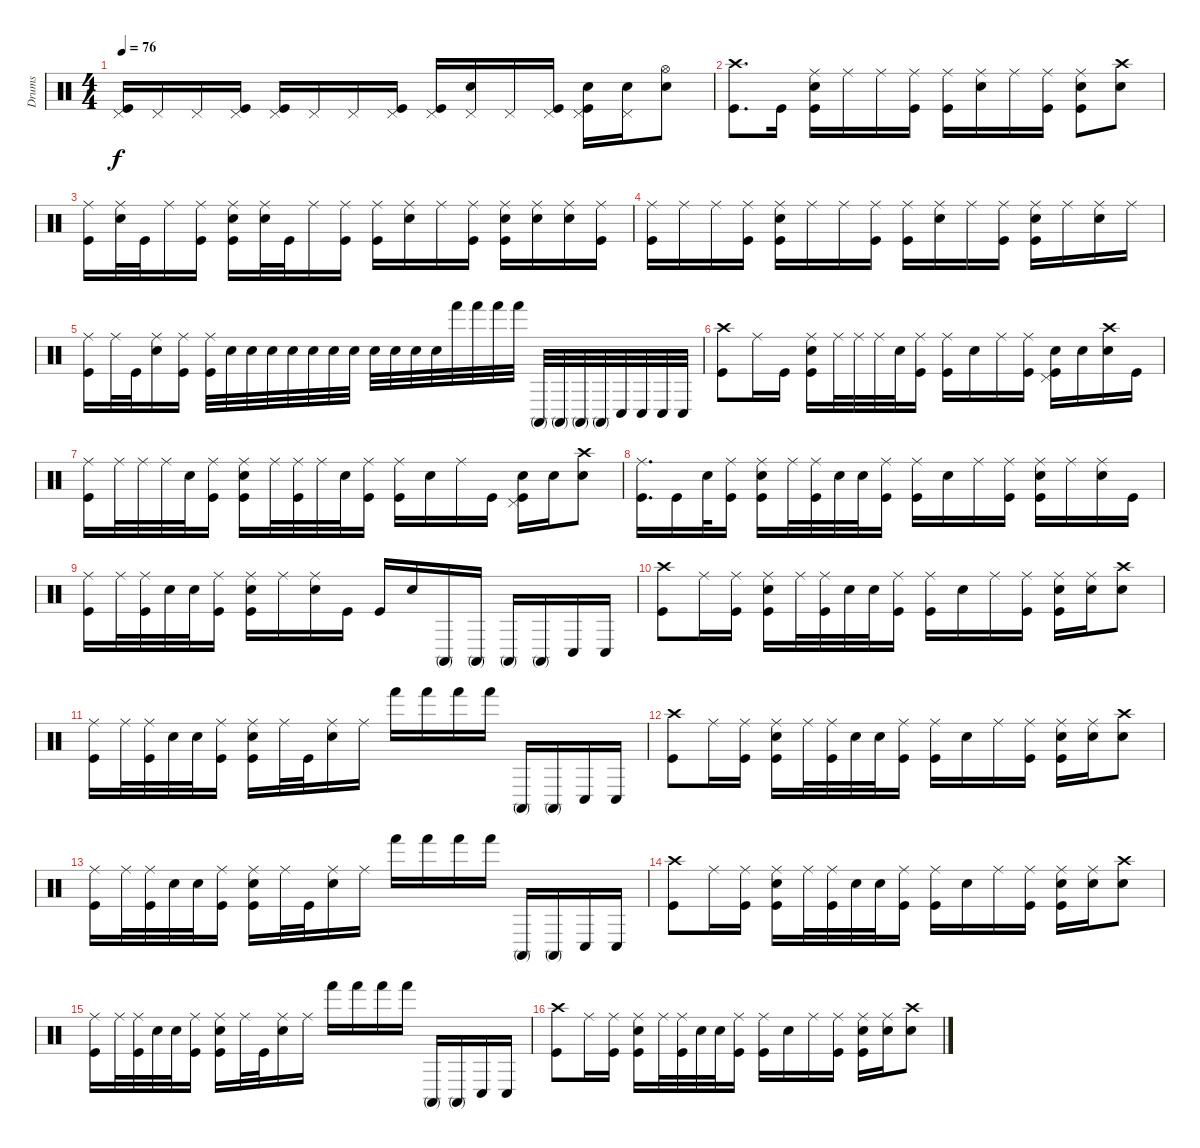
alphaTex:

\track ("Drums" "Drums") {instrument percussion}
\staff {score}
\articulation defaults
\ts (4 4)
\tempo 76
\clef neutral
\ks c
("Kick (hit)" "Pedal Hi-Hat (hit)").16{dy f} "Pedal Hi-Hat (hit)".16 "Pedal Hi-Hat (hit)".16 ("Pedal Hi-Hat (hit)" "Kick (hit)").16 ("Pedal Hi-Hat (hit)" "Kick (hit)").16 "Pedal Hi-Hat (hit)".16 "Pedal Hi-Hat (hit)".16 ("Pedal Hi-Hat (hit)" "Kick (hit)").16 ("Pedal Hi-Hat (hit)" "Kick (hit)").16 ("Pedal Hi-Hat (hit)" "Electric Snare (hit)").16 "Pedal Hi-Hat (hit)".16 ("Pedal Hi-Hat (hit)" "Kick (hit)").16 ("Pedal Hi-Hat (hit)" "Kick (hit)" "Electric Snare (hit)").16 ("Pedal Hi-Hat (hit)" "Electric Snare (hit)").16 ("Electric Snare (hit)" "Hi-Hat (open)").8 |
("Kick (hit)" "Crash high (hit)").8{d} "Kick (hit)".16 ("Kick (hit)" "Electric Snare (hit)" "Ride (middle)").16 "Ride (middle)".16 "Ride (middle)".16 ("Kick (hit)" "Ride (middle)").16 ("Kick (hit)" "Ride (middle)").16 ("Electric Snare (hit)" "Ride (middle)").16 "Ride (middle)".16 ("Kick (hit)" "Ride (middle)").16 ("Kick (hit)" "Electric Snare (hit)" "Ride (middle)").8 ("Electric Snare (hit)" "Crash high (hit)").8 |
("Kick (hit)" "Ride (middle)").16 ("Electric Snare (hit)" "Ride (middle)").32 "Kick (hit)".32 "Ride (middle)".16 ("Kick (hit)" "Ride (middle)").16 ("Kick (hit)" "Electric Snare (hit)" "Ride (middle)").16 ("Electric Snare (hit)" "Ride (middle)").32 "Kick (hit)".32 "Ride (middle)".16 ("Kick (hit)" "Ride (middle)").16 ("Kick (hit)" "Ride (middle)").16 ("Electric Snare (hit)" "Ride (middle)").16 "Ride (middle)".16 ("Kick (hit)" "Ride (middle)").16 ("Kick (hit)" "Electric Snare (hit)" "Ride (middle)").16 ("Electric Snare (hit)" "Ride (middle)").16 ("Electric Snare (hit)" "Ride (middle)").16 ("Kick (hit)" "Ride (middle)").16 |
("Kick (hit)" "Ride (middle)").16 "Ride (middle)".16 "Ride (middle)".16 ("Kick (hit)" "Ride (middle)").16 ("Kick (hit)" "Electric Snare (hit)" "Ride (middle)").16 "Ride (middle)".16 "Ride (middle)".16 ("Kick (hit)" "Ride (middle)").16 ("Kick (hit)" "Ride (middle)").16 ("Electric Snare (hit)" "Ride (middle)").16 "Ride (middle)".16 ("Kick (hit)" "Ride (middle)").16 ("Kick (hit)" "Electric Snare (hit)" "Ride (middle)").16 "Ride (middle)".16 ("Electric Snare (hit)" "Ride (middle)").16 "Ride (middle)".16 |
("Ride (middle)" "Kick (hit)").16 "Ride (middle)".32 "Kick (hit)".32 ("Ride (middle)" "Electric Snare (hit)").16 ("Ride (middle)" "Kick (hit)").16 ("Kick (hit)" "Ride (middle)").32 "Electric Snare (hit)".32 "Electric Snare (hit)".32 "Electric Snare (hit)".32 "Electric Snare (hit)".32 "Electric Snare (hit)".32 "Electric Snare (hit)".32 "Electric Snare (hit)".32 "Electric Snare (hit)".32 "Electric Snare (hit)".32 "Electric Snare (hit)".32 "Electric Snare (hit)".32 "Hand (hit)".32 "Hand (hit)".32 "Hand (hit)".32 "Hand (hit)".32 "Conga high (mute)".32 "Conga high (mute)".32 "Conga high (mute)".32 "Conga high (mute)".32 "Conga low (hit)".32 "Conga low (hit)".32 "Conga low (hit)".32 "Conga low (hit)".32 |
("Kick (hit)" "Crash high (hit)").8 "Ride (middle)".16 "Kick (hit)".16 ("Kick (hit)" "Ride (middle)" "Electric Snare (hit)").16 "Ride (middle)".32 "Ride (middle)".32 "Ride (middle)".32 "Electric Snare (hit)".32 ("Kick (hit)" "Ride (middle)").16 ("Kick (hit)" "Ride (middle)").16 "Electric Snare (hit)".16 "Ride (middle)".16 ("Kick (hit)" "Ride (middle)").16 ("Kick (hit)" "Electric Snare (hit)" "Pedal Hi-Hat (hit)").16 "Electric Snare (hit)".16 ("Electric Snare (hit)" "Crash high (hit)").16 "Kick (hit)".16 |
("Kick (hit)" "Ride (middle)").16 "Ride (middle)".32 "Ride (middle)".32 "Ride (middle)".32 "Electric Snare (hit)".32 ("Kick (hit)" "Ride (middle)").16 ("Kick (hit)" "Electric Snare (hit)" "Ride (middle)").16 "Ride (middle)".32 ("Kick (hit)" "Ride (middle)").32 "Ride (middle)".32 "Electric Snare (hit)".32 ("Kick (hit)" "Ride (middle)").16 ("Kick (hit)" "Ride (middle)").16 "Electric Snare (hit)".16 "Ride (middle)".16 "Kick (hit)".16 ("Kick (hit)" "Electric Snare (hit)" "Pedal Hi-Hat (hit)").16 "Electric Snare (hit)".16 ("Electric Snare (hit)" "Crash high (hit)").8 |
("Kick (hit)" "Ride (middle)").16{d} "Kick (hit)".16 "Electric Snare (hit)".32 ("Kick (hit)" "Ride (middle)").16 ("Electric Snare (hit)" "Kick (hit)" "Ride (middle)").16 "Ride (middle)".32 ("Kick (hit)" "Ride (middle)").32 "Electric Snare (hit)".32 "Electric Snare (hit)".32 ("Kick (hit)" "Ride (middle)").16 ("Kick (hit)" "Ride (middle)").16 "Electric Snare (hit)".16 "Ride (middle)".16 ("Kick (hit)" "Ride (middle)").16 ("Kick (hit)" "Ride (middle)" "Electric Snare (hit)").16 "Ride (middle)".16 ("Ride (middle)" "Electric Snare (hit)").16 "Kick (hit)".16 |
("Ride (middle)" "Kick (hit)").16 "Ride (middle)".32 ("Kick (hit)" "Ride (middle)").32 "Electric Snare (hit)".32 "Electric Snare (hit)".32 ("Kick (hit)" "Ride (middle)").16 ("Electric Snare (hit)" "Ride (middle)" "Kick (hit)").16 "Ride (middle)".16 ("Ride (middle)" "Electric Snare (hit)").16 "Kick (hit)".16 "Kick (hit)".16 "Electric Snare (hit)".16 "Conga high (mute)".16 "Conga high (mute)".16 "Conga high (mute)".16 "Conga high (mute)".16 "Conga low (hit)".16 "Conga low (hit)".16 |
("Kick (hit)" "Crash high (hit)").8 "Ride (middle)".16 ("Kick (hit)" "Ride (middle)").16 ("Electric Snare (hit)" "Kick (hit)" "Ride (middle)").16 "Ride (middle)".32 ("Kick (hit)" "Ride (middle)").32 "Electric Snare (hit)".32 "Electric Snare (hit)".32 ("Kick (hit)" "Ride (middle)").16 ("Kick (hit)" "Ride (middle)").16 "Electric Snare (hit)".16 "Ride (middle)".16 ("Kick (hit)" "Ride (middle)").16 ("Kick (hit)" "Electric Snare (hit)" "Ride (middle)").16 ("Electric Snare (hit)" "Ride (middle)").16 ("Electric Snare (hit)" "Crash high (hit)").8 |
("Kick (hit)" "Ride (middle)").16 "Ride (middle)".32 ("Kick (hit)" "Ride (middle)").32 "Electric Snare (hit)".32 "Electric Snare (hit)".32 ("Kick (hit)" "Ride (middle)").16 ("Ride (middle)" "Kick (hit)" "Electric Snare (hit)").16 "Ride (middle)".32 "Kick (hit)".32 ("Ride (middle)" "Electric Snare (hit)").16 "Ride (middle)".16 "Hand (hit)".16 "Hand (hit)".16 "Hand (hit)".16 "Hand (hit)".16 "Conga high (mute)".16 "Conga high (mute)".16 "Conga low (hit)".16 "Conga low (hit)".16 |
("Crash high (hit)" "Kick (hit)").8 "Ride (middle)".16 ("Kick (hit)" "Ride (middle)").16 ("Electric Snare (hit)" "Kick (hit)" "Ride (middle)").16 "Ride (middle)".32 ("Kick (hit)" "Ride (middle)").32 "Electric Snare (hit)".32 "Electric Snare (hit)".32 ("Kick (hit)" "Ride (middle)").16 ("Kick (hit)" "Ride (middle)").16 "Electric Snare (hit)".16 "Ride (middle)".16 ("Kick (hit)" "Ride (middle)").16 ("Kick (hit)" "Electric Snare (hit)" "Ride (middle)").16 ("Electric Snare (hit)" "Ride (middle)").16 ("Electric Snare (hit)" "Crash high (hit)").8 |
("Ride (middle)" "Kick (hit)").16 "Ride (middle)".32 ("Kick (hit)" "Ride (middle)").32 "Electric Snare (hit)".32 "Electric Snare (hit)".32 ("Kick (hit)" "Ride (middle)").16 ("Ride (middle)" "Kick (hit)" "Electric Snare (hit)").16 "Ride (middle)".32 "Kick (hit)".32 ("Ride (middle)" "Electric Snare (hit)").16 "Ride (middle)".16 "Hand (hit)".16 "Hand (hit)".16 "Hand (hit)".16 "Hand (hit)".16 "Conga high (mute)".16 "Conga high (mute)".16 "Conga low (hit)".16 "Conga low (hit)".16 |
("Crash high (hit)" "Kick (hit)").8 "Ride (middle)".16 ("Kick (hit)" "Ride (middle)").16 ("Electric Snare (hit)" "Kick (hit)" "Ride (middle)").16 "Ride (middle)".32 ("Kick (hit)" "Ride (middle)").32 "Electric Snare (hit)".32 "Electric Snare (hit)".32 ("Kick (hit)" "Ride (middle)").16 ("Kick (hit)" "Ride (middle)").16 "Electric Snare (hit)".16 "Ride (middle)".16 ("Kick (hit)" "Ride (middle)").16 ("Kick (hit)" "Electric Snare (hit)" "Ride (middle)").16 ("Electric Snare (hit)" "Ride (middle)").16 ("Electric Snare (hit)" "Crash high (hit)").8 |
("Ride (middle)" "Kick (hit)").16 "Ride (middle)".32 ("Kick (hit)" "Ride (middle)").32 "Electric Snare (hit)".32 "Electric Snare (hit)".32 ("Kick (hit)" "Ride (middle)").16 ("Ride (middle)" "Kick (hit)" "Electric Snare (hit)").16 "Ride (middle)".32 "Kick (hit)".32 ("Ride (middle)" "Electric Snare (hit)").16 "Ride (middle)".16 "Hand (hit)".16 "Hand (hit)".16 "Hand (hit)".16 "Hand (hit)".16 "Conga high (mute)".16 "Conga high (mute)".16 "Conga low (hit)".16 "Conga low (hit)".16 |
("Crash high (hit)" "Kick (hit)").8 "Ride (middle)".16 ("Kick (hit)" "Ride (middle)").16 ("Electric Snare (hit)" "Kick (hit)" "Ride (middle)").16 "Ride (middle)".32 ("Kick (hit)" "Ride (middle)").32 "Electric Snare (hit)".32 "Electric Snare (hit)".32 ("Kick (hit)" "Ride (middle)").16 ("Kick (hit)" "Ride (middle)").16 "Electric Snare (hit)".16 "Ride (middle)".16 ("Kick (hit)" "Ride (middle)").16 ("Kick (hit)" "Electric Snare (hit)" "Ride (middle)").16 ("Electric Snare (hit)" "Ride (middle)").16 ("Electric Snare (hit)" "Crash high (hit)").8
